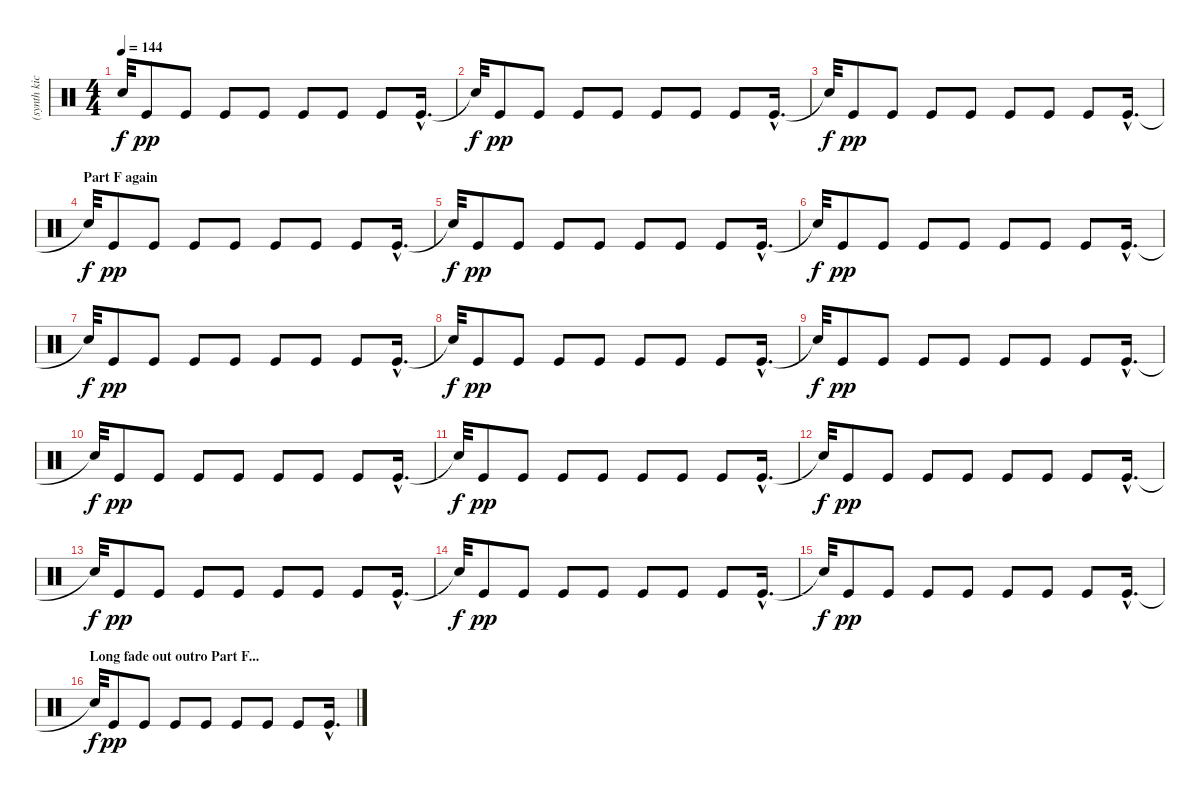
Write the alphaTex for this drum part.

\track ("(synth kick loop reverb)" "(synth kic") {instrument percussion}
\staff {score}
\articulation defaults
\ts (4 4)
\tempo 144
\clef neutral
\ks c "Snare (hit)"{t}.32{dy f} "Kick (hit)".8{dy pp} "Kick (hit)".8 "Kick (hit)".8 "Kick (hit)".8 "Kick (hit)".8 "Kick (hit)".8 "Kick (hit)".8 "Kick (hit)"{hac}.16{d}
|
"Snare (hit)"{t}.32{dy f} "Kick (hit)".8{dy pp} "Kick (hit)".8 "Kick (hit)".8 "Kick (hit)".8 "Kick (hit)".8 "Kick (hit)".8 "Kick (hit)".8 "Kick (hit)"{hac}.16{d} |
"Snare (hit)"{t}.32{dy f} "Kick (hit)".8{dy pp} "Kick (hit)".8 "Kick (hit)".8 "Kick (hit)".8 "Kick (hit)".8 "Kick (hit)".8 "Kick (hit)".8 "Kick (hit)"{hac}.16{d} |
\section ("" "Part F again")
"Snare (hit)"{t}.32{dy f} "Kick (hit)".8{dy pp} "Kick (hit)".8 "Kick (hit)".8 "Kick (hit)".8 "Kick (hit)".8 "Kick (hit)".8 "Kick (hit)".8 "Kick (hit)"{hac}.16{d} |
"Snare (hit)"{t}.32{dy f} "Kick (hit)".8{dy pp} "Kick (hit)".8 "Kick (hit)".8 "Kick (hit)".8 "Kick (hit)".8 "Kick (hit)".8 "Kick (hit)".8 "Kick (hit)"{hac}.16{d} |
"Snare (hit)"{t}.32{dy f} "Kick (hit)".8{dy pp} "Kick (hit)".8 "Kick (hit)".8 "Kick (hit)".8 "Kick (hit)".8 "Kick (hit)".8 "Kick (hit)".8 "Kick (hit)"{hac}.16{d} |
"Snare (hit)"{t}.32{dy f} "Kick (hit)".8{dy pp} "Kick (hit)".8 "Kick (hit)".8 "Kick (hit)".8 "Kick (hit)".8 "Kick (hit)".8 "Kick (hit)".8 "Kick (hit)"{hac}.16{d} |
"Snare (hit)"{t}.32{dy f} "Kick (hit)".8{dy pp} "Kick (hit)".8 "Kick (hit)".8 "Kick (hit)".8 "Kick (hit)".8 "Kick (hit)".8 "Kick (hit)".8 "Kick (hit)"{hac}.16{d} |
"Snare (hit)"{t}.32{dy f} "Kick (hit)".8{dy pp} "Kick (hit)".8 "Kick (hit)".8 "Kick (hit)".8 "Kick (hit)".8 "Kick (hit)".8 "Kick (hit)".8 "Kick (hit)"{hac}.16{d} |
"Snare (hit)"{t}.32{dy f} "Kick (hit)".8{dy pp} "Kick (hit)".8 "Kick (hit)".8 "Kick (hit)".8 "Kick (hit)".8 "Kick (hit)".8 "Kick (hit)".8 "Kick (hit)"{hac}.16{d} |
"Snare (hit)"{t}.32{dy f} "Kick (hit)".8{dy pp} "Kick (hit)".8 "Kick (hit)".8 "Kick (hit)".8 "Kick (hit)".8 "Kick (hit)".8 "Kick (hit)".8 "Kick (hit)"{hac}.16{d} |
"Snare (hit)"{t}.32{dy f} "Kick (hit)".8{dy pp} "Kick (hit)".8 "Kick (hit)".8 "Kick (hit)".8 "Kick (hit)".8 "Kick (hit)".8 "Kick (hit)".8 "Kick (hit)"{hac}.16{d} |
"Snare (hit)"{t}.32{dy f} "Kick (hit)".8{dy pp} "Kick (hit)".8 "Kick (hit)".8 "Kick (hit)".8 "Kick (hit)".8 "Kick (hit)".8 "Kick (hit)".8 "Kick (hit)"{hac}.16{d} |
"Snare (hit)"{t}.32{dy f} "Kick (hit)".8{dy pp} "Kick (hit)".8 "Kick (hit)".8 "Kick (hit)".8 "Kick (hit)".8 "Kick (hit)".8 "Kick (hit)".8 "Kick (hit)"{hac}.16{d} |
"Snare (hit)"{t}.32{dy f} "Kick (hit)".8{dy pp} "Kick (hit)".8 "Kick (hit)".8 "Kick (hit)".8 "Kick (hit)".8 "Kick (hit)".8 "Kick (hit)".8 "Kick (hit)"{hac}.16{d} |
\section ("" "Long fade out outro Part F...")
"Snare (hit)"{t}.32{dy f} "Kick (hit)".8{dy pp} "Kick (hit)".8 "Kick (hit)".8 "Kick (hit)".8 "Kick (hit)".8 "Kick (hit)".8 "Kick (hit)".8 "Kick (hit)"{hac}.16{d}
